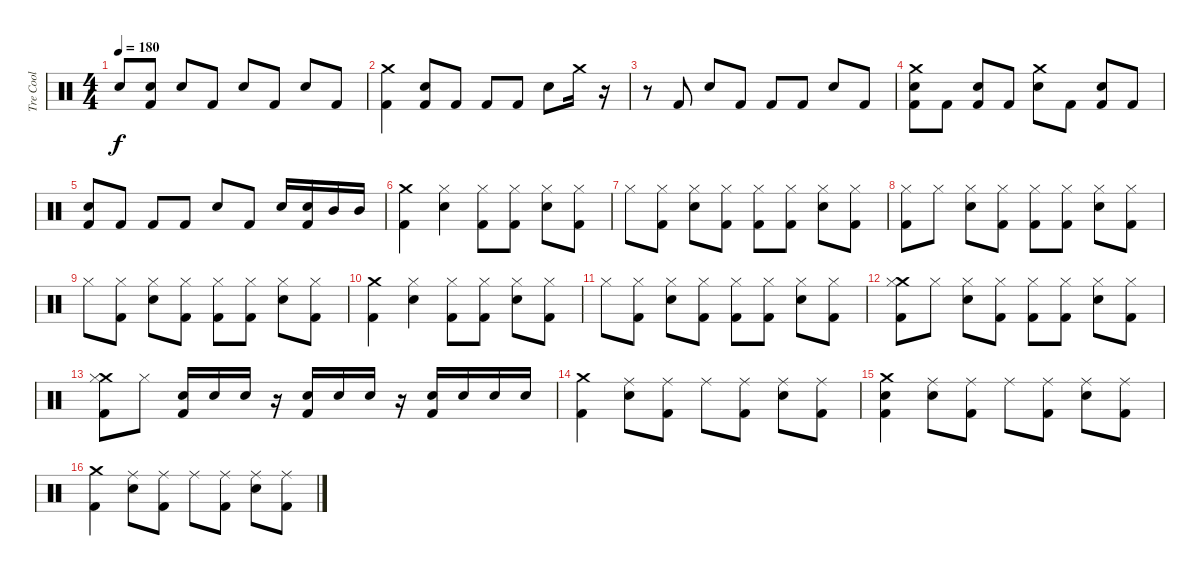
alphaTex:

\track ("Tre Cool" "Tre Cool") {instrument percussion}
\staff {score}
\articulation defaults
\ts (4 4)
\tempo 180
\clef neutral
\ks c "Snare (hit) 2".8{dy f}
("Snare (hit) 2" "Kick (hit) 2").8 "Snare (hit) 2".8 "Kick (hit) 2".8 "Snare (hit) 2".8 "Kick (hit) 2".8 "Snare (hit) 2".8 "Kick (hit) 2".8 |
("Crash medium (hit)" "Kick (hit) 2").4 ("Snare (hit) 2" "Kick (hit) 2").8 "Kick (hit) 2".8 "Kick (hit) 2".8 "Kick (hit) 2".8 "Snare (hit) 2".8 "Crash medium (hit)".16 r.16 |
r.8 "Kick (hit) 2".8 "Snare (hit) 2".8 "Kick (hit) 2".8 "Kick (hit) 2".8 "Kick (hit) 2".8 "Snare (hit) 2".8 "Kick (hit) 2".8 |
("Crash medium (hit)" "Snare (hit) 2" "Kick (hit) 2").8 "Kick (hit) 2".8 ("Snare (hit) 2" "Kick (hit) 2").8 "Kick (hit) 2".8 ("Crash medium (hit)" "Snare (hit) 2").8 "Kick (hit) 2".8 ("Snare (hit) 2" "Kick (hit) 2").8 "Kick (hit) 2".8 |
("Snare (hit) 2" "Kick (hit) 2").8 "Kick (hit) 2".8 "Kick (hit) 2".8 "Kick (hit) 2".8 "Snare (hit) 2".8 "Kick (hit) 2".8 "Snare (hit) 2".16 ("Snare (hit) 2" "Kick (hit) 2").16 "Mid Tom (hit)".16 "Mid Tom (hit)".16 |
("Crash medium (hit)" "Kick (hit) 2").4 ("Hi-Hat (closed)" "Snare (hit) 2").4 ("Hi-Hat (closed)" "Kick (hit) 2").8 ("Hi-Hat (closed)" "Kick (hit) 2").8 ("Hi-Hat (closed)" "Snare (hit) 2").8 ("Hi-Hat (closed)" "Kick (hit) 2").8 |
"Hi-Hat (closed)".8 ("Hi-Hat (closed)" "Kick (hit) 2").8 ("Hi-Hat (closed)" "Snare (hit) 2").8 ("Hi-Hat (closed)" "Kick (hit) 2").8 ("Hi-Hat (closed)" "Kick (hit) 2").8 ("Hi-Hat (closed)" "Kick (hit) 2").8 ("Hi-Hat (closed)" "Snare (hit) 2").8 ("Hi-Hat (closed)" "Kick (hit) 2").8 |
("Hi-Hat (closed)" "Kick (hit) 2").8 "Hi-Hat (closed)".8 ("Hi-Hat (closed)" "Snare (hit) 2").8 ("Hi-Hat (closed)" "Kick (hit) 2").8 ("Hi-Hat (closed)" "Kick (hit) 2").8 ("Hi-Hat (closed)" "Kick (hit) 2").8 ("Hi-Hat (closed)" "Snare (hit) 2").8 ("Hi-Hat (closed)" "Kick (hit) 2").8 |
"Hi-Hat (closed)".8 ("Hi-Hat (closed)" "Kick (hit) 2").8 ("Hi-Hat (closed)" "Snare (hit) 2").8 ("Hi-Hat (closed)" "Kick (hit) 2").8 ("Hi-Hat (closed)" "Kick (hit) 2").8 ("Hi-Hat (closed)" "Kick (hit) 2").8 ("Hi-Hat (closed)" "Snare (hit) 2").8 ("Hi-Hat (closed)" "Kick (hit) 2").8 |
("Crash medium (hit)" "Kick (hit) 2").4 ("Hi-Hat (closed)" "Snare (hit) 2").4 ("Hi-Hat (closed)" "Kick (hit) 2").8 ("Hi-Hat (closed)" "Kick (hit) 2").8 ("Hi-Hat (closed)" "Snare (hit) 2").8 ("Hi-Hat (closed)" "Kick (hit) 2").8 |
"Hi-Hat (closed)".8 ("Hi-Hat (closed)" "Kick (hit) 2").8 ("Hi-Hat (closed)" "Snare (hit) 2").8 ("Hi-Hat (closed)" "Kick (hit) 2").8 ("Hi-Hat (closed)" "Kick (hit) 2").8 ("Hi-Hat (closed)" "Kick (hit) 2").8 ("Hi-Hat (closed)" "Snare (hit) 2").8 ("Hi-Hat (closed)" "Kick (hit) 2").8 |
("Crash medium (hit)" "Hi-Hat (closed)" "Kick (hit) 2").8 "Hi-Hat (closed)".8 ("Hi-Hat (closed)" "Snare (hit) 2").8 ("Hi-Hat (closed)" "Kick (hit) 2").8 ("Hi-Hat (closed)" "Kick (hit) 2").8 ("Hi-Hat (closed)" "Kick (hit) 2").8 ("Hi-Hat (closed)" "Snare (hit) 2").8 ("Hi-Hat (closed)" "Kick (hit) 2").8 |
("Crash medium (hit)" "Hi-Hat (closed)" "Kick (hit) 2").8 "Hi-Hat (closed)".8 ("Snare (hit) 2" "Kick (hit) 2").16 "Snare (hit) 2".16 "Snare (hit) 2".16 r.16 ("Snare (hit) 2" "Kick (hit) 2").16 "Snare (hit) 2".16 "Snare (hit) 2".16 r.16 ("Snare (hit) 2" "Kick (hit) 2").16 "Snare (hit) 2".16 "Snare (hit) 2".16 "Snare (hit) 2".16 |
("Crash medium (hit)" "Kick (hit) 2").4 ("Ride (middle)" "Snare (hit) 2").8 ("Ride (middle)" "Kick (hit) 2").8 "Ride (middle)".8 ("Ride (middle)" "Kick (hit) 2").8 ("Ride (middle)" "Snare (hit) 2").8 ("Ride (middle)" "Kick (hit) 2").8 |
("Crash medium (hit)" "Snare (hit) 2" "Kick (hit) 2").4 ("Ride (middle)" "Snare (hit) 2").8 ("Ride (middle)" "Kick (hit) 2").8 "Ride (middle)".8 ("Ride (middle)" "Kick (hit) 2").8 ("Ride (middle)" "Snare (hit) 2").8 ("Ride (middle)" "Kick (hit) 2").8 |
("Crash medium (hit)" "Kick (hit) 2").4 ("Ride (middle)" "Snare (hit) 2").8 ("Ride (middle)" "Kick (hit) 2").8 "Ride (middle)".8 ("Ride (middle)" "Kick (hit) 2").8 ("Ride (middle)" "Snare (hit) 2").8 ("Ride (middle)" "Kick (hit) 2").8
